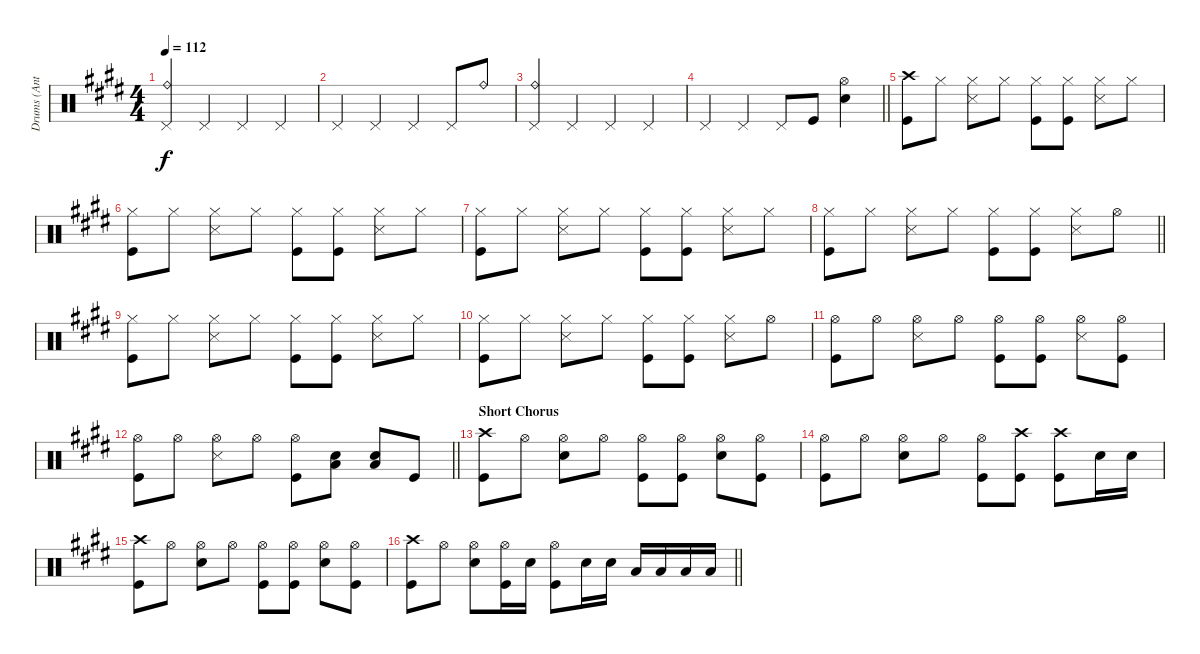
\track ("Drums (Ant)" "Drums (Ant") {instrument percussion}
\staff {score}
\articulation defaults
\ts (4 4)
\tempo 112
\clef neutral
\ks e
("Ride (bell)" "Pedal Hi-Hat (hit)").4{dy f} "Pedal Hi-Hat (hit)".4 "Pedal Hi-Hat (hit)".4 "Pedal Hi-Hat (hit)".4 |
"Pedal Hi-Hat (hit)".4 "Pedal Hi-Hat (hit)".4 "Pedal Hi-Hat (hit)".4 "Pedal Hi-Hat (hit)".8 "Ride (bell)".8 |
("Ride (bell)" "Pedal Hi-Hat (hit)").4 "Pedal Hi-Hat (hit)".4 "Pedal Hi-Hat (hit)".4 "Pedal Hi-Hat (hit)".4 |
\barLineRight lightlight "Pedal Hi-Hat (hit)".4 "Pedal Hi-Hat (hit)".4 "Pedal Hi-Hat (hit)".8 "Kick (hit)".8
("Hi-Hat (open)" "Snare (hit) 2").4 |
("Crash high (hit)" "Kick (hit)").8 "Hi-Hat (closed)".8 ("Hi-Hat (closed)" "Snare (side stick) 3").8 "Hi-Hat (closed)".8 ("Hi-Hat (closed)" "Kick (hit)").8 ("Hi-Hat (closed)" "Kick (hit)").8 ("Hi-Hat (closed)" "Snare (side stick) 3").8 "Hi-Hat (closed)".8 |
("Hi-Hat (closed)" "Kick (hit)").8 "Hi-Hat (closed)".8 ("Hi-Hat (closed)" "Snare (side stick) 3").8 "Hi-Hat (closed)".8 ("Hi-Hat (closed)" "Kick (hit)").8 ("Hi-Hat (closed)" "Kick (hit)").8 ("Hi-Hat (closed)" "Snare (side stick) 3").8 "Hi-Hat (closed)".8 |
("Hi-Hat (closed)" "Kick (hit)").8 "Hi-Hat (closed)".8 ("Hi-Hat (closed)" "Snare (side stick) 3").8 "Hi-Hat (closed)".8 ("Hi-Hat (closed)" "Kick (hit)").8 ("Hi-Hat (closed)" "Kick (hit)").8 ("Hi-Hat (closed)" "Snare (side stick) 3").8 "Hi-Hat (closed)".8 |
\barLineRight lightlight
("Hi-Hat (closed)" "Kick (hit)").8 "Hi-Hat (closed)".8 ("Hi-Hat (closed)" "Snare (side stick) 3").8 "Hi-Hat (closed)".8 ("Hi-Hat (closed)" "Kick (hit)").8 ("Hi-Hat (closed)" "Kick (hit)").8 ("Hi-Hat (closed)" "Snare (side stick) 3").8 "Hi-Hat (open)".8 |
("Hi-Hat (closed)" "Kick (hit)").8 "Hi-Hat (closed)".8 ("Hi-Hat (closed)" "Snare (side stick) 3").8 "Hi-Hat (closed)".8 ("Hi-Hat (closed)" "Kick (hit)").8 ("Hi-Hat (closed)" "Kick (hit)").8 ("Hi-Hat (closed)" "Snare (side stick) 3").8 "Hi-Hat (closed)".8 |
("Hi-Hat (closed)" "Kick (hit)").8 "Hi-Hat (closed)".8 ("Hi-Hat (closed)" "Snare (side stick) 3").8 "Hi-Hat (closed)".8 ("Hi-Hat (closed)" "Kick (hit)").8 ("Hi-Hat (closed)" "Kick (hit)").8 ("Hi-Hat (closed)" "Snare (side stick) 3").8 "Hi-Hat (open)".8 |
("Hi-Hat (open)" "Kick (hit)").8 "Hi-Hat (open)".8 ("Hi-Hat (open)" "Snare (side stick) 3").8 "Hi-Hat (open)".8 ("Hi-Hat (open)" "Kick (hit)").8 ("Hi-Hat (open)" "Kick (hit)").8 ("Hi-Hat (open)" "Snare (side stick) 3").8 ("Hi-Hat (open)" "Kick (hit)").8 |
\barLineRight lightlight
("Hi-Hat (open)" "Kick (hit)").8 "Hi-Hat (open)".8 ("Hi-Hat (open)" "Snare (side stick) 3").8 "Hi-Hat (open)".8 ("Hi-Hat (open)" "Kick (hit)").8 ("Low Floor Tom (hit)" "Snare (hit) 2").8 ("Low Floor Tom (hit)" "Snare (hit) 2").8 "Kick (hit)".8 |
\section ("" "Short Chorus")
("Crash high (hit)" "Kick (hit)").8 "Hi-Hat (open)".8 ("Hi-Hat (open)" "Snare (hit) 2").8 "Hi-Hat (open)".8 ("Hi-Hat (open)" "Kick (hit)").8 ("Hi-Hat (open)" "Kick (hit)").8 ("Hi-Hat (open)" "Snare (hit) 2").8 ("Hi-Hat (open)" "Kick (hit)").8 |
("Hi-Hat (open)" "Kick (hit)").8 "Hi-Hat (open)".8 ("Hi-Hat (open)" "Snare (hit) 2").8 "Hi-Hat (open)".8 ("Hi-Hat (open)" "Kick (hit)").8 ("Crash high (hit)" "Kick (hit)").8 ("Crash high (hit)" "Kick (hit)").8 "Snare (hit) 2".16 "Snare (hit) 2".16 |
("Crash high (hit)" "Kick (hit)").8 "Hi-Hat (open)".8 ("Hi-Hat (open)" "Snare (hit) 2").8 "Hi-Hat (open)".8 ("Hi-Hat (open)" "Kick (hit)").8 ("Hi-Hat (open)" "Kick (hit)").8 ("Hi-Hat (open)" "Snare (hit) 2").8 ("Hi-Hat (open)" "Kick (hit)").8 |
\barLineRight lightlight
("Crash high (hit)" "Kick (hit)").8 "Hi-Hat (open)".8 ("Hi-Hat (open)" "Snare (hit) 2").8 ("Hi-Hat (open)" "Kick (hit)").16 "Snare (hit) 2".16 ("Hi-Hat (open)" "Kick (hit)").8 "Snare (hit) 2".16 "Snare (hit) 2".16 "Low Tom (hit)".16 "Low Tom (hit)".16 "Low Floor Tom (hit)".16 "Low Floor Tom (hit)".16
